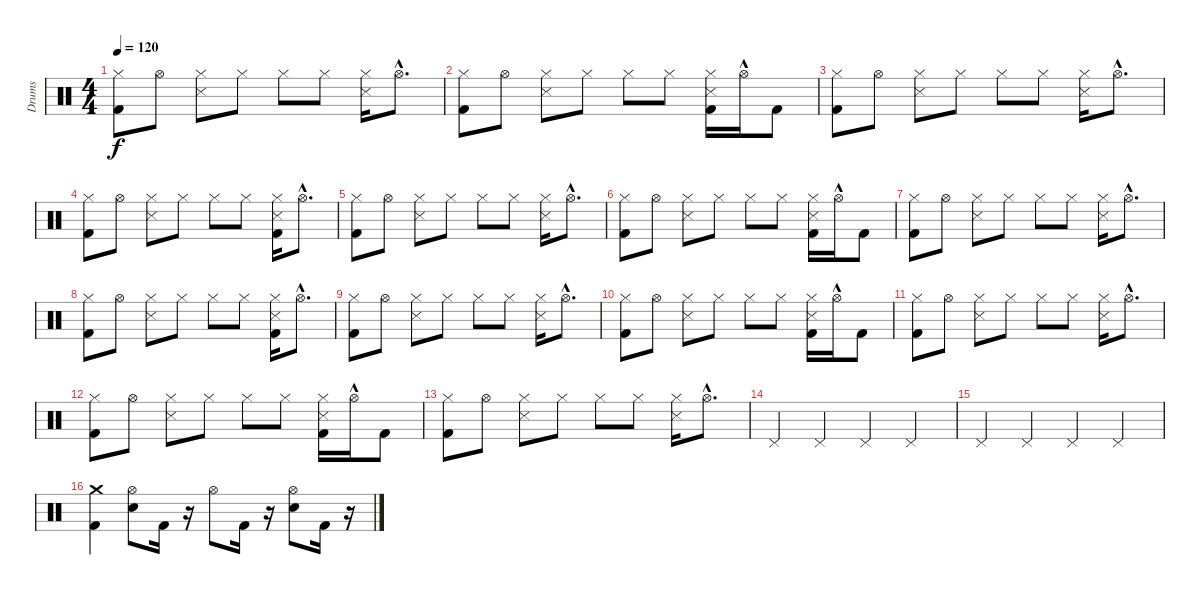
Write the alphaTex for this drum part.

\track ("Drums" "Drums") {instrument percussion}
\staff {score}
\articulation defaults
\ts (4 4)
\tempo 120
\clef neutral
\ks c
("Kick (hit) 2" "Hi-Hat (closed)").8{dy f} "Hi-Hat (open)".8 ("Snare (side stick) 3" "Hi-Hat (closed)").8 "Hi-Hat (closed)".8 "Hi-Hat (closed)".8 "Hi-Hat (closed)".8 ("Snare (side stick) 3" "Hi-Hat (closed)").16 "Hi-Hat (open)"{hac}.8{d} |
("Kick (hit) 2" "Hi-Hat (closed)").8 "Hi-Hat (open)".8 ("Snare (side stick) 3" "Hi-Hat (closed)").8 "Hi-Hat (closed)".8 "Hi-Hat (closed)".8 "Hi-Hat (closed)".8 ("Snare (side stick) 3" "Kick (hit) 2" "Hi-Hat (closed)").16 "Hi-Hat (open)"{hac}.16 "Kick (hit) 2".8 |
("Kick (hit) 2" "Hi-Hat (closed)").8 "Hi-Hat (open)".8 ("Snare (side stick) 3" "Hi-Hat (closed)").8 "Hi-Hat (closed)".8 "Hi-Hat (closed)".8 "Hi-Hat (closed)".8 ("Snare (side stick) 3" "Hi-Hat (closed)").16 "Hi-Hat (open)"{hac}.8{d} |
("Kick (hit) 2" "Hi-Hat (closed)").8 "Hi-Hat (open)".8 ("Snare (side stick) 3" "Hi-Hat (closed)").8 "Hi-Hat (closed)".8 "Hi-Hat (closed)".8 "Hi-Hat (closed)".8 ("Snare (side stick) 3" "Kick (hit) 2" "Hi-Hat (closed)").16 "Hi-Hat (open)"{hac}.8{d} |
("Kick (hit) 2" "Hi-Hat (closed)").8 "Hi-Hat (open)".8 ("Snare (side stick) 3" "Hi-Hat (closed)").8 "Hi-Hat (closed)".8 "Hi-Hat (closed)".8 "Hi-Hat (closed)".8 ("Snare (side stick) 3" "Hi-Hat (closed)").16 "Hi-Hat (open)"{hac}.8{d} |
("Kick (hit) 2" "Hi-Hat (closed)").8 "Hi-Hat (open)".8 ("Snare (side stick) 3" "Hi-Hat (closed)").8 "Hi-Hat (closed)".8 "Hi-Hat (closed)".8 "Hi-Hat (closed)".8 ("Snare (side stick) 3" "Kick (hit) 2" "Hi-Hat (closed)").16 "Hi-Hat (open)"{hac}.16 "Kick (hit) 2".8 |
("Kick (hit) 2" "Hi-Hat (closed)").8 "Hi-Hat (open)".8 ("Snare (side stick) 3" "Hi-Hat (closed)").8 "Hi-Hat (closed)".8 "Hi-Hat (closed)".8 "Hi-Hat (closed)".8 ("Snare (side stick) 3" "Hi-Hat (closed)").16 "Hi-Hat (open)"{hac}.8{d} |
("Hi-Hat (closed)" "Kick (hit) 2").8 "Hi-Hat (open)".8 ("Hi-Hat (closed)" "Snare (side stick) 3").8 "Hi-Hat (closed)".8 "Hi-Hat (closed)".8 "Hi-Hat (closed)".8 ("Hi-Hat (closed)" "Snare (side stick) 3" "Kick (hit) 2").16 "Hi-Hat (open)"{hac}.8{d} |
("Hi-Hat (closed)" "Kick (hit) 2").8 "Hi-Hat (open)".8 ("Hi-Hat (closed)" "Snare (side stick) 3").8 "Hi-Hat (closed)".8 "Hi-Hat (closed)".8 "Hi-Hat (closed)".8 ("Hi-Hat (closed)" "Snare (side stick) 3").16 "Hi-Hat (open)"{hac}.8{d} |
("Hi-Hat (closed)" "Kick (hit) 2").8 "Hi-Hat (open)".8 ("Hi-Hat (closed)" "Snare (side stick) 3").8 "Hi-Hat (closed)".8 "Hi-Hat (closed)".8 "Hi-Hat (closed)".8 ("Hi-Hat (closed)" "Snare (side stick) 3" "Kick (hit) 2").16 "Hi-Hat (open)"{hac}.16 "Kick (hit) 2".8 |
("Hi-Hat (closed)" "Kick (hit) 2").8 "Hi-Hat (open)".8 ("Hi-Hat (closed)" "Snare (side stick) 3").8 "Hi-Hat (closed)".8 "Hi-Hat (closed)".8 "Hi-Hat (closed)".8 ("Hi-Hat (closed)" "Snare (side stick) 3").16 "Hi-Hat (open)"{hac}.8{d} |
("Hi-Hat (closed)" "Kick (hit) 2").8 "Hi-Hat (open)".8 ("Hi-Hat (closed)" "Snare (side stick) 3").8 "Hi-Hat (closed)".8 "Hi-Hat (closed)".8 "Hi-Hat (closed)".8 ("Hi-Hat (closed)" "Snare (side stick) 3" "Kick (hit) 2").16 "Hi-Hat (open)"{hac}.16 "Kick (hit) 2".8 |
("Hi-Hat (closed)" "Kick (hit) 2").8 "Hi-Hat (open)".8 ("Snare (side stick) 3" "Hi-Hat (closed)").8 "Hi-Hat (closed)".8 "Hi-Hat (closed)".8 "Hi-Hat (closed)".8 ("Snare (side stick) 3" "Hi-Hat (closed)").16 "Hi-Hat (open)"{hac}.8{d} |
"Pedal Hi-Hat (hit)".4 "Pedal Hi-Hat (hit)".4 "Pedal Hi-Hat (hit)".4 "Pedal Hi-Hat (hit)".4 |
"Pedal Hi-Hat (hit)".4 "Pedal Hi-Hat (hit)".4 "Pedal Hi-Hat (hit)".4 "Pedal Hi-Hat (hit)".4 |
("Crash medium (hit)" "Kick (hit) 2").4 ("Hi-Hat (open)" "Electric Snare (hit)").8 "Kick (hit) 2".16 r.16 "Hi-Hat (open)".8 "Kick (hit) 2".16 r.16 ("Hi-Hat (open)" "Electric Snare (hit)").8 "Kick (hit) 2".16 r.16
